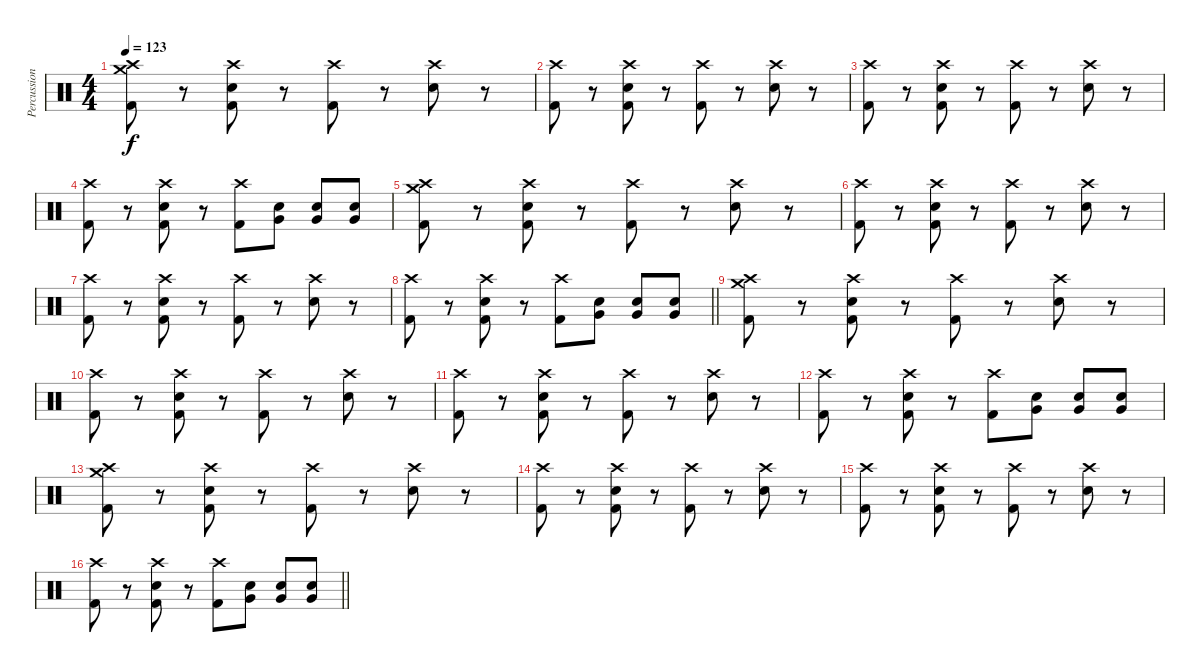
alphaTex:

\track ("Percussion" "Percussion") {instrument percussion}
\staff {score}
\articulation defaults
\ts (4 4)
\section ("" "")
\tempo 123
\clef neutral
\ks c
("Crash medium (hit)" "Crash high (hit)" "Kick (hit) 2").8{dy f} r.8 ("Crash high (hit)" "Snare (hit) 2" "Kick (hit) 2").8 r.8 ("Crash high (hit)" "Kick (hit) 2").8 r.8 ("Crash high (hit)" "Snare (hit) 2").8 r.8 |
("Crash high (hit)" "Kick (hit) 2").8 r.8 ("Crash high (hit)" "Snare (hit) 2" "Kick (hit) 2").8 r.8 ("Crash high (hit)" "Kick (hit) 2").8 r.8 ("Crash high (hit)" "Snare (hit) 2").8 r.8 |
("Crash high (hit)" "Kick (hit) 2").8 r.8 ("Crash high (hit)" "Snare (hit) 2" "Kick (hit) 2").8 r.8 ("Crash high (hit)" "Kick (hit) 2").8 r.8 ("Crash high (hit)" "Snare (hit) 2").8 r.8 |
("Crash high (hit)" "Kick (hit) 2").8 r.8 ("Crash high (hit)" "Snare (hit) 2" "Kick (hit) 2").8 r.8 ("Crash high (hit)" "Kick (hit) 2").8 ("Very Low Tom (hit)" "Snare (hit) 2").8 ("Very Low Tom (hit)" "Snare (hit) 2").8 ("Very Low Tom (hit)" "Snare (hit) 2").8 |
("Crash medium (hit)" "Crash high (hit)" "Kick (hit) 2").8 r.8 ("Crash high (hit)" "Snare (hit) 2" "Kick (hit) 2").8 r.8 ("Crash high (hit)" "Kick (hit) 2").8 r.8 ("Crash high (hit)" "Snare (hit) 2").8 r.8 |
("Crash high (hit)" "Kick (hit) 2").8 r.8 ("Crash high (hit)" "Snare (hit) 2" "Kick (hit) 2").8 r.8 ("Crash high (hit)" "Kick (hit) 2").8 r.8 ("Crash high (hit)" "Snare (hit) 2").8 r.8 |
("Crash high (hit)" "Kick (hit) 2").8 r.8 ("Crash high (hit)" "Snare (hit) 2" "Kick (hit) 2").8 r.8 ("Crash high (hit)" "Kick (hit) 2").8 r.8 ("Crash high (hit)" "Snare (hit) 2").8 r.8 |
\barLineRight lightlight
("Crash high (hit)" "Kick (hit) 2").8 r.8 ("Crash high (hit)" "Snare (hit) 2" "Kick (hit) 2").8 r.8 ("Crash high (hit)" "Kick (hit) 2").8 ("Very Low Tom (hit)" "Snare (hit) 2").8 ("Very Low Tom (hit)" "Snare (hit) 2").8 ("Very Low Tom (hit)" "Snare (hit) 2").8 |
("Crash medium (hit)" "Crash high (hit)" "Kick (hit) 2").8 r.8 ("Crash high (hit)" "Snare (hit) 2" "Kick (hit) 2").8 r.8 ("Crash high (hit)" "Kick (hit) 2").8 r.8 ("Crash high (hit)" "Snare (hit) 2").8 r.8 |
("Crash high (hit)" "Kick (hit) 2").8 r.8 ("Crash high (hit)" "Snare (hit) 2" "Kick (hit) 2").8 r.8 ("Crash high (hit)" "Kick (hit) 2").8 r.8 ("Crash high (hit)" "Snare (hit) 2").8 r.8 |
("Crash high (hit)" "Kick (hit) 2").8 r.8 ("Crash high (hit)" "Snare (hit) 2" "Kick (hit) 2").8 r.8 ("Crash high (hit)" "Kick (hit) 2").8 r.8 ("Crash high (hit)" "Snare (hit) 2").8 r.8 |
("Crash high (hit)" "Kick (hit) 2").8 r.8 ("Crash high (hit)" "Snare (hit) 2" "Kick (hit) 2").8 r.8 ("Crash high (hit)" "Kick (hit) 2").8 ("Very Low Tom (hit)" "Snare (hit) 2").8 ("Very Low Tom (hit)" "Snare (hit) 2").8 ("Very Low Tom (hit)" "Snare (hit) 2").8 |
("Crash medium (hit)" "Crash high (hit)" "Kick (hit) 2").8 r.8 ("Crash high (hit)" "Snare (hit) 2" "Kick (hit) 2").8 r.8 ("Crash high (hit)" "Kick (hit) 2").8 r.8 ("Crash high (hit)" "Snare (hit) 2").8 r.8 |
("Crash high (hit)" "Kick (hit) 2").8 r.8 ("Crash high (hit)" "Snare (hit) 2" "Kick (hit) 2").8 r.8 ("Crash high (hit)" "Kick (hit) 2").8 r.8 ("Crash high (hit)" "Snare (hit) 2").8 r.8 |
("Crash high (hit)" "Kick (hit) 2").8 r.8 ("Crash high (hit)" "Snare (hit) 2" "Kick (hit) 2").8 r.8 ("Crash high (hit)" "Kick (hit) 2").8 r.8 ("Crash high (hit)" "Snare (hit) 2").8 r.8 |
\barLineRight lightlight
("Crash high (hit)" "Kick (hit) 2").8 r.8 ("Crash high (hit)" "Snare (hit) 2" "Kick (hit) 2").8 r.8 ("Crash high (hit)" "Kick (hit) 2").8 ("Very Low Tom (hit)" "Snare (hit) 2").8 ("Very Low Tom (hit)" "Snare (hit) 2").8 ("Very Low Tom (hit)" "Snare (hit) 2").8
